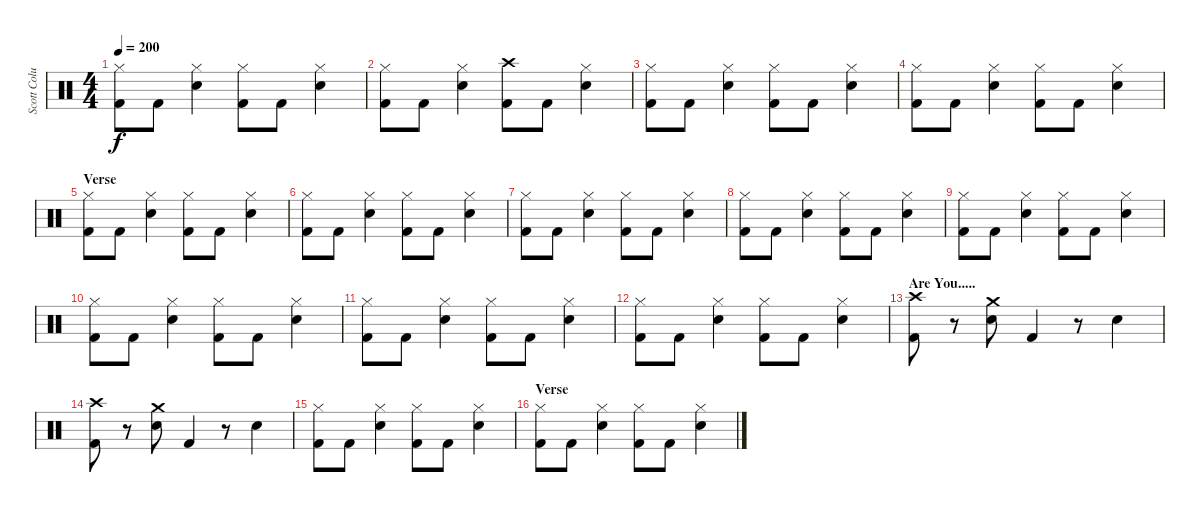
\track ("Scott Columbus" "Scott Colu") {instrument percussion}
\staff {score}
\articulation defaults
\ts (4 4)
\tempo 200
\clef neutral
\ks c
("Hi-Hat (closed)" "Kick (hit) 2").8{dy f} "Kick (hit) 2".8 ("Hi-Hat (closed)" "Snare (hit) 2").4 ("Hi-Hat (closed)" "Kick (hit) 2").8 "Kick (hit) 2".8 ("Hi-Hat (closed)" "Snare (hit) 2").4 |
("Hi-Hat (closed)" "Kick (hit) 2").8 "Kick (hit) 2".8 ("Hi-Hat (closed)" "Snare (hit) 2").4 ("Crash high (hit)" "Kick (hit) 2").8 "Kick (hit) 2".8 ("Hi-Hat (closed)" "Snare (hit) 2").4 |
("Hi-Hat (closed)" "Kick (hit) 2").8 "Kick (hit) 2".8 ("Hi-Hat (closed)" "Snare (hit) 2").4 ("Hi-Hat (closed)" "Kick (hit) 2").8 "Kick (hit) 2".8 ("Hi-Hat (closed)" "Snare (hit) 2").4 |
("Hi-Hat (closed)" "Kick (hit) 2").8 "Kick (hit) 2".8 ("Hi-Hat (closed)" "Snare (hit) 2").4 ("Hi-Hat (closed)" "Kick (hit) 2").8 "Kick (hit) 2".8 ("Hi-Hat (closed)" "Snare (hit) 2").4 |
\section ("" "Verse")
("Hi-Hat (closed)" "Kick (hit) 2").8 "Kick (hit) 2".8 ("Hi-Hat (closed)" "Snare (hit) 2").4 ("Hi-Hat (closed)" "Kick (hit) 2").8 "Kick (hit) 2".8 ("Hi-Hat (closed)" "Snare (hit) 2").4 |
("Hi-Hat (closed)" "Kick (hit) 2").8 "Kick (hit) 2".8 ("Hi-Hat (closed)" "Snare (hit) 2").4 ("Hi-Hat (closed)" "Kick (hit) 2").8 "Kick (hit) 2".8 ("Hi-Hat (closed)" "Snare (hit) 2").4 |
("Hi-Hat (closed)" "Kick (hit) 2").8 "Kick (hit) 2".8 ("Hi-Hat (closed)" "Snare (hit) 2").4 ("Hi-Hat (closed)" "Kick (hit) 2").8 "Kick (hit) 2".8 ("Hi-Hat (closed)" "Snare (hit) 2").4 |
("Hi-Hat (closed)" "Kick (hit) 2").8 "Kick (hit) 2".8 ("Hi-Hat (closed)" "Snare (hit) 2").4 ("Hi-Hat (closed)" "Kick (hit) 2").8 "Kick (hit) 2".8 ("Hi-Hat (closed)" "Snare (hit) 2").4 |
("Hi-Hat (closed)" "Kick (hit) 2").8 "Kick (hit) 2".8 ("Hi-Hat (closed)" "Snare (hit) 2").4 ("Hi-Hat (closed)" "Kick (hit) 2").8 "Kick (hit) 2".8 ("Hi-Hat (closed)" "Snare (hit) 2").4 |
("Hi-Hat (closed)" "Kick (hit) 2").8 "Kick (hit) 2".8 ("Hi-Hat (closed)" "Snare (hit) 2").4 ("Hi-Hat (closed)" "Kick (hit) 2").8 "Kick (hit) 2".8 ("Hi-Hat (closed)" "Snare (hit) 2").4 |
("Hi-Hat (closed)" "Kick (hit) 2").8 "Kick (hit) 2".8 ("Hi-Hat (closed)" "Snare (hit) 2").4 ("Hi-Hat (closed)" "Kick (hit) 2").8 "Kick (hit) 2".8 ("Hi-Hat (closed)" "Snare (hit) 2").4 |
("Hi-Hat (closed)" "Kick (hit) 2").8 "Kick (hit) 2".8 ("Hi-Hat (closed)" "Snare (hit) 2").4 ("Hi-Hat (closed)" "Kick (hit) 2").8 "Kick (hit) 2".8 ("Hi-Hat (closed)" "Snare (hit) 2").4 |
\section ("" "Are You.....")
("Crash high (hit)" "Kick (hit) 2").8 r.8 ("Crash medium (hit)" "Snare (hit) 2").8 "Kick (hit) 2".4 r.8 "Snare (hit) 2".4 |
("Crash high (hit)" "Kick (hit) 2").8 r.8 ("Crash medium (hit)" "Snare (hit) 2").8 "Kick (hit) 2".4 r.8 "Snare (hit) 2".4 |
("Hi-Hat (closed)" "Kick (hit) 2").8 "Kick (hit) 2".8 ("Hi-Hat (closed)" "Snare (hit) 2").4 ("Hi-Hat (closed)" "Kick (hit) 2").8 "Kick (hit) 2".8 ("Hi-Hat (closed)" "Snare (hit) 2").4 |
\section ("" "Verse")
("Hi-Hat (closed)" "Kick (hit) 2").8 "Kick (hit) 2".8 ("Hi-Hat (closed)" "Snare (hit) 2").4 ("Hi-Hat (closed)" "Kick (hit) 2").8 "Kick (hit) 2".8 ("Hi-Hat (closed)" "Snare (hit) 2").4
